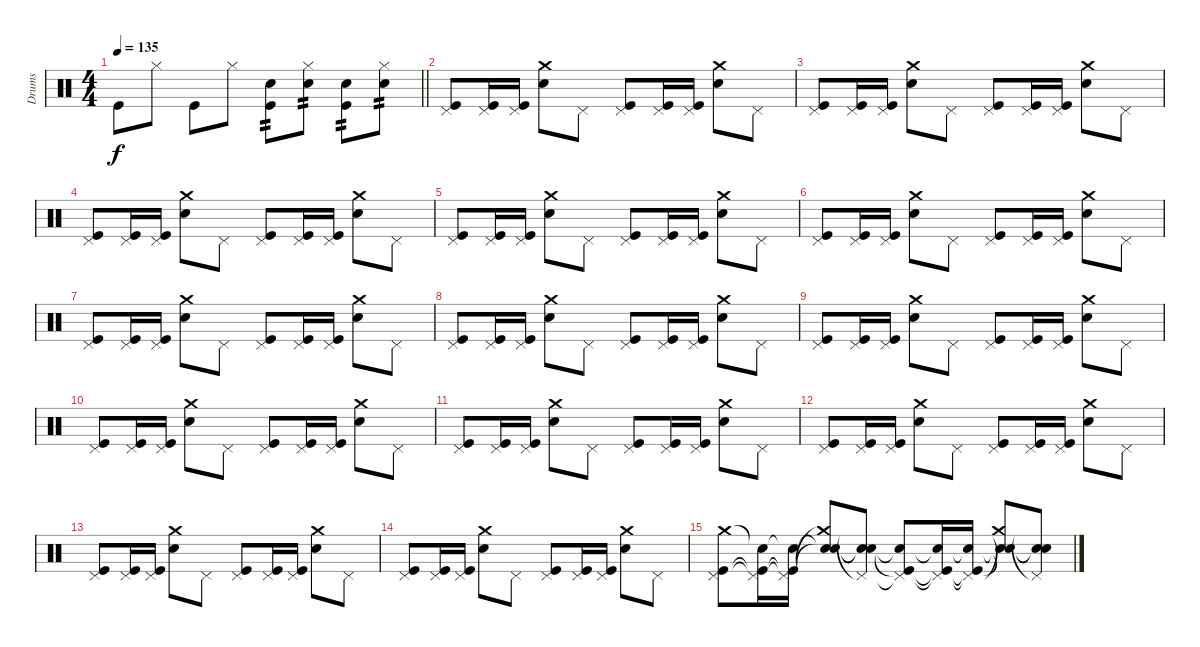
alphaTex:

\track ("Drums" "Drums") {instrument percussion}
\staff {score}
\articulation defaults
\ts (4 4)
\tempo 135
\clef neutral
\barLineRight lightlight
\ks c "Kick (hit)".8{dy f} "Hi-Hat (closed)".8 "Kick (hit)".8 "Hi-Hat (closed)".8
("Electric Snare (hit)" "Kick (hit)").8{tp 2} ("Hi-Hat (closed)" "Electric Snare (hit)").8{tp 2} ("Electric Snare (hit)" "Kick (hit)").8{tp 2} ("Hi-Hat (closed)" "Electric Snare (hit)").8{tp 2} |
("Pedal Hi-Hat (hit)" "Kick (hit)").8 ("Pedal Hi-Hat (hit)" "Kick (hit)").16 ("Pedal Hi-Hat (hit)" "Kick (hit)").16 ("Crash medium (hit)" "Electric Snare (hit)").8 "Pedal Hi-Hat (hit)".8 ("Pedal Hi-Hat (hit)" "Kick (hit)").8 ("Pedal Hi-Hat (hit)" "Kick (hit)").16 ("Pedal Hi-Hat (hit)" "Kick (hit)").16 ("Crash medium (hit)" "Electric Snare (hit)").8 "Pedal Hi-Hat (hit)".8 |
("Pedal Hi-Hat (hit)" "Kick (hit)").8 ("Pedal Hi-Hat (hit)" "Kick (hit)").16 ("Pedal Hi-Hat (hit)" "Kick (hit)").16 ("Crash medium (hit)" "Electric Snare (hit)").8 "Pedal Hi-Hat (hit)".8 ("Pedal Hi-Hat (hit)" "Kick (hit)").8 ("Pedal Hi-Hat (hit)" "Kick (hit)").16 ("Pedal Hi-Hat (hit)" "Kick (hit)").16 ("Crash medium (hit)" "Electric Snare (hit)").8 "Pedal Hi-Hat (hit)".8 |
("Pedal Hi-Hat (hit)" "Kick (hit)").8 ("Pedal Hi-Hat (hit)" "Kick (hit)").16 ("Pedal Hi-Hat (hit)" "Kick (hit)").16 ("Crash medium (hit)" "Electric Snare (hit)").8 "Pedal Hi-Hat (hit)".8 ("Pedal Hi-Hat (hit)" "Kick (hit)").8 ("Pedal Hi-Hat (hit)" "Kick (hit)").16 ("Pedal Hi-Hat (hit)" "Kick (hit)").16 ("Crash medium (hit)" "Electric Snare (hit)").8 "Pedal Hi-Hat (hit)".8 |
("Pedal Hi-Hat (hit)" "Kick (hit)").8 ("Pedal Hi-Hat (hit)" "Kick (hit)").16 ("Pedal Hi-Hat (hit)" "Kick (hit)").16 ("Crash medium (hit)" "Electric Snare (hit)").8 "Pedal Hi-Hat (hit)".8 ("Pedal Hi-Hat (hit)" "Kick (hit)").8 ("Pedal Hi-Hat (hit)" "Kick (hit)").16 ("Pedal Hi-Hat (hit)" "Kick (hit)").16 ("Crash medium (hit)" "Electric Snare (hit)").8 "Pedal Hi-Hat (hit)".8 |
("Pedal Hi-Hat (hit)" "Kick (hit)").8 ("Pedal Hi-Hat (hit)" "Kick (hit)").16 ("Pedal Hi-Hat (hit)" "Kick (hit)").16 ("Crash medium (hit)" "Electric Snare (hit)").8 "Pedal Hi-Hat (hit)".8 ("Pedal Hi-Hat (hit)" "Kick (hit)").8 ("Pedal Hi-Hat (hit)" "Kick (hit)").16 ("Pedal Hi-Hat (hit)" "Kick (hit)").16 ("Crash medium (hit)" "Electric Snare (hit)").8 "Pedal Hi-Hat (hit)".8 |
("Pedal Hi-Hat (hit)" "Kick (hit)").8 ("Pedal Hi-Hat (hit)" "Kick (hit)").16 ("Pedal Hi-Hat (hit)" "Kick (hit)").16 ("Crash medium (hit)" "Electric Snare (hit)").8 "Pedal Hi-Hat (hit)".8 ("Pedal Hi-Hat (hit)" "Kick (hit)").8 ("Pedal Hi-Hat (hit)" "Kick (hit)").16 ("Pedal Hi-Hat (hit)" "Kick (hit)").16 ("Crash medium (hit)" "Electric Snare (hit)").8 "Pedal Hi-Hat (hit)".8 |
("Pedal Hi-Hat (hit)" "Kick (hit)").8 ("Pedal Hi-Hat (hit)" "Kick (hit)").16 ("Pedal Hi-Hat (hit)" "Kick (hit)").16 ("Crash medium (hit)" "Electric Snare (hit)").8 "Pedal Hi-Hat (hit)".8 ("Pedal Hi-Hat (hit)" "Kick (hit)").8 ("Pedal Hi-Hat (hit)" "Kick (hit)").16 ("Pedal Hi-Hat (hit)" "Kick (hit)").16 ("Crash medium (hit)" "Electric Snare (hit)").8 "Pedal Hi-Hat (hit)".8 |
("Pedal Hi-Hat (hit)" "Kick (hit)").8 ("Pedal Hi-Hat (hit)" "Kick (hit)").16 ("Pedal Hi-Hat (hit)" "Kick (hit)").16 ("Crash medium (hit)" "Electric Snare (hit)").8 "Pedal Hi-Hat (hit)".8 ("Pedal Hi-Hat (hit)" "Kick (hit)").8 ("Pedal Hi-Hat (hit)" "Kick (hit)").16 ("Pedal Hi-Hat (hit)" "Kick (hit)").16 ("Crash medium (hit)" "Electric Snare (hit)").8 "Pedal Hi-Hat (hit)".8 |
("Pedal Hi-Hat (hit)" "Kick (hit)").8 ("Pedal Hi-Hat (hit)" "Kick (hit)").16 ("Pedal Hi-Hat (hit)" "Kick (hit)").16 ("Crash medium (hit)" "Electric Snare (hit)").8 "Pedal Hi-Hat (hit)".8 ("Pedal Hi-Hat (hit)" "Kick (hit)").8 ("Pedal Hi-Hat (hit)" "Kick (hit)").16 ("Pedal Hi-Hat (hit)" "Kick (hit)").16 ("Crash medium (hit)" "Electric Snare (hit)").8 "Pedal Hi-Hat (hit)".8 |
("Pedal Hi-Hat (hit)" "Kick (hit)").8 ("Pedal Hi-Hat (hit)" "Kick (hit)").16 ("Pedal Hi-Hat (hit)" "Kick (hit)").16 ("Crash medium (hit)" "Electric Snare (hit)").8 "Pedal Hi-Hat (hit)".8 ("Pedal Hi-Hat (hit)" "Kick (hit)").8 ("Pedal Hi-Hat (hit)" "Kick (hit)").16 ("Pedal Hi-Hat (hit)" "Kick (hit)").16 ("Crash medium (hit)" "Electric Snare (hit)").8 "Pedal Hi-Hat (hit)".8 |
("Pedal Hi-Hat (hit)" "Kick (hit)").8 ("Pedal Hi-Hat (hit)" "Kick (hit)").16 ("Pedal Hi-Hat (hit)" "Kick (hit)").16 ("Crash medium (hit)" "Electric Snare (hit)").8 "Pedal Hi-Hat (hit)".8 ("Pedal Hi-Hat (hit)" "Kick (hit)").8 ("Pedal Hi-Hat (hit)" "Kick (hit)").16 ("Pedal Hi-Hat (hit)" "Kick (hit)").16 ("Crash medium (hit)" "Electric Snare (hit)").8 "Pedal Hi-Hat (hit)".8 |
("Pedal Hi-Hat (hit)" "Kick (hit)").8 ("Pedal Hi-Hat (hit)" "Kick (hit)").16 ("Pedal Hi-Hat (hit)" "Kick (hit)").16 ("Crash medium (hit)" "Electric Snare (hit)").8 "Pedal Hi-Hat (hit)".8 ("Pedal Hi-Hat (hit)" "Kick (hit)").8 ("Pedal Hi-Hat (hit)" "Kick (hit)").16 ("Pedal Hi-Hat (hit)" "Kick (hit)").16 ("Crash medium (hit)" "Electric Snare (hit)").8 "Pedal Hi-Hat (hit)".8 |
("Pedal Hi-Hat (hit)" "Kick (hit)").8 ("Pedal Hi-Hat (hit)" "Kick (hit)").16 ("Pedal Hi-Hat (hit)" "Kick (hit)").16 ("Crash medium (hit)" "Electric Snare (hit)").8 "Pedal Hi-Hat (hit)".8 ("Pedal Hi-Hat (hit)" "Kick (hit)").8 ("Pedal Hi-Hat (hit)" "Kick (hit)").16 ("Pedal Hi-Hat (hit)" "Kick (hit)").16 ("Crash medium (hit)" "Electric Snare (hit)").8 "Pedal Hi-Hat (hit)".8 |
("Crash medium (hit)" "Pedal Hi-Hat (hit)" "Kick (hit)").8 ("Snare (hit)"{t} "Pedal Hi-Hat (hit)"{t} "Kick (hit)"{t}).16 ("Snare (hit)"{t} "Pedal Hi-Hat (hit)"{t} "Kick (hit)"{t}).16 ("Snare (hit)"{t} "Crash medium (hit)"{t} "Electric Snare (hit)"{t}).8 ("Snare (hit)"{t} "Pedal Hi-Hat (hit)"{t} "Snare (hit)"{t}).8 ("Snare (hit)"{t} "Pedal Hi-Hat (hit)"{t} "Kick (hit)"{t}).8 ("Snare (hit)"{t} "Pedal Hi-Hat (hit)"{t} "Kick (hit)"{t}).16 ("Snare (hit)"{t} "Pedal Hi-Hat (hit)"{t} "Kick (hit)"{t}).16 ("Snare (hit)"{t} "Crash medium (hit)"{t} "Electric Snare (hit)"{t}).8 ("Snare (hit)"{t} "Pedal Hi-Hat (hit)"{t} "Snare (hit)"{t}).8
